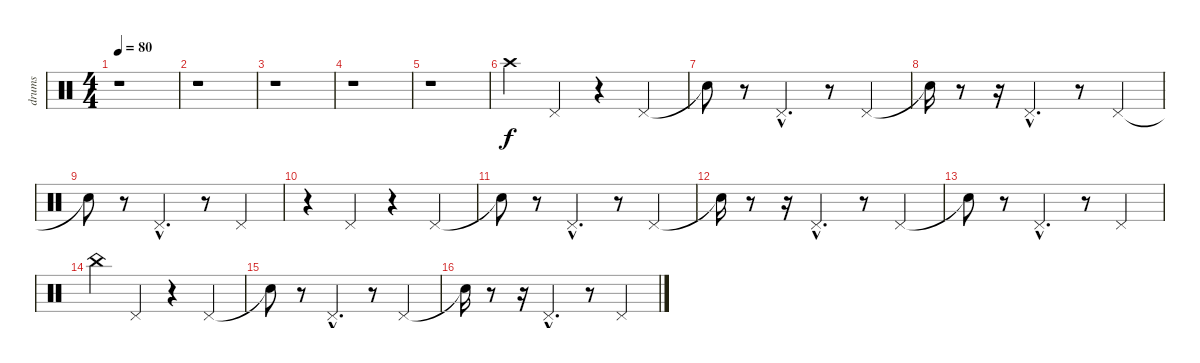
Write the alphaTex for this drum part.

\track ("drums" "drums") {instrument percussion}
\staff {score}
\articulation defaults
\ts (4 4)
\tempo 80
\clef neutral
\ks c
r.1{dy f} |
r.1 |
r.1 |
r.1 |
r.1 |
"Crash high (hit)".4 "Pedal Hi-Hat (hit)".4 r.4 "Pedal Hi-Hat (hit)".4 |
"Snare (hit)"{t}.8 r.8 "Pedal Hi-Hat (hit)"{hac}.4{d} r.8 "Pedal Hi-Hat (hit)".4 |
"Snare (hit)"{t}.16 r.8 r.16 "Pedal Hi-Hat (hit)"{hac}.4{d} r.8 "Pedal Hi-Hat (hit)".4 |
"Snare (hit)"{t}.8 r.8 "Pedal Hi-Hat (hit)"{hac}.4{d} r.8 "Pedal Hi-Hat (hit)".4 |
r.4 "Pedal Hi-Hat (hit)".4 r.4 "Pedal Hi-Hat (hit)".4 |
"Snare (hit)"{t}.8 r.8 "Pedal Hi-Hat (hit)"{hac}.4{d} r.8 "Pedal Hi-Hat (hit)".4 |
"Snare (hit)"{t}.16 r.8 r.16 "Pedal Hi-Hat (hit)"{hac}.4{d} r.8 "Pedal Hi-Hat (hit)".4 |
"Snare (hit)"{t}.8 r.8 "Pedal Hi-Hat (hit)"{hac}.4{d} r.8 "Pedal Hi-Hat (hit)".4 |
"China (hit)".4 "Pedal Hi-Hat (hit)".4 r.4 "Pedal Hi-Hat (hit)".4 |
"Snare (hit)"{t}.8 r.8 "Pedal Hi-Hat (hit)"{hac}.4{d} r.8 "Pedal Hi-Hat (hit)".4 |
"Snare (hit)"{t}.16 r.8 r.16 "Pedal Hi-Hat (hit)"{hac}.4{d} r.8 "Pedal Hi-Hat (hit)".4
